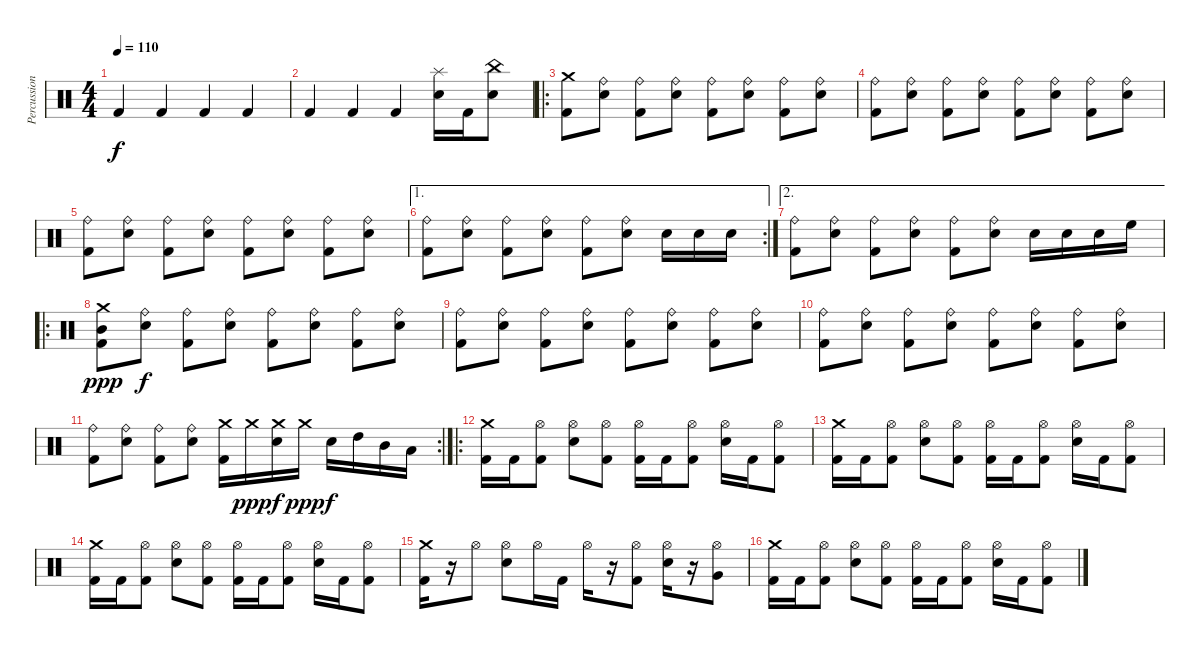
\track ("Percussion" "Percussion") {instrument percussion}
\staff {score}
\articulation defaults
\ts (4 4)
\tempo 110
\clef neutral
\ks c "Kick (hit) 2".4{dy f} "Kick (hit) 2".4 "Kick (hit) 2".4 "Kick (hit) 2".4
|
"Kick (hit) 2".4 "Kick (hit) 2".4 "Kick (hit) 2".4 ("Splash (hit)" "Electric Snare (hit)").16 "Kick (hit) 2".16 ("China (hit)" "Electric Snare (hit)").8 |
\ro
("Crash medium (hit)" "Kick (hit) 2").8 ("Ride (bell)" "Electric Snare (hit)").8 ("Ride (bell)" "Kick (hit) 2").8 ("Ride (bell)" "Electric Snare (hit)").8 ("Ride (bell)" "Kick (hit) 2").8 ("Ride (bell)" "Electric Snare (hit)").8 ("Ride (bell)" "Kick (hit) 2").8 ("Ride (bell)" "Electric Snare (hit)").8 |
("Ride (bell)" "Kick (hit) 2").8 ("Ride (bell)" "Electric Snare (hit)").8 ("Ride (bell)" "Kick (hit) 2").8 ("Ride (bell)" "Electric Snare (hit)").8 ("Ride (bell)" "Kick (hit) 2").8 ("Ride (bell)" "Electric Snare (hit)").8 ("Ride (bell)" "Kick (hit) 2").8 ("Ride (bell)" "Electric Snare (hit)").8 |
("Ride (bell)" "Kick (hit) 2").8 ("Ride (bell)" "Electric Snare (hit)").8 ("Ride (bell)" "Kick (hit) 2").8 ("Ride (bell)" "Electric Snare (hit)").8 ("Ride (bell)" "Kick (hit) 2").8 ("Ride (bell)" "Electric Snare (hit)").8 ("Ride (bell)" "Kick (hit) 2").8 ("Ride (bell)" "Electric Snare (hit)").8 |
\ae 1
\rc 2
("Ride (bell)" "Kick (hit) 2").8 ("Ride (bell)" "Electric Snare (hit)").8 ("Ride (bell)" "Kick (hit) 2").8 ("Ride (bell)" "Electric Snare (hit)").8 ("Ride (bell)" "Kick (hit) 2").8 ("Ride (bell)" "Electric Snare (hit)").8 "Electric Snare (hit)".16 "Electric Snare (hit)".16 "Electric Snare (hit)".16 |
\ae 2
("Ride (bell)" "Kick (hit) 2").8 ("Ride (bell)" "Electric Snare (hit)").8 ("Ride (bell)" "Kick (hit) 2").8 ("Ride (bell)" "Electric Snare (hit)").8 ("Ride (bell)" "Kick (hit) 2").8 ("Ride (bell)" "Electric Snare (hit)").8 "Electric Snare (hit)".16 "Electric Snare (hit)".16 "Electric Snare (hit)".16 "High Floor Tom (hit)".16 |
\ro
("Mid Tom (hit)" "Crash medium (hit)" "Kick (hit) 2").8{dy ppp} ("Ride (bell)" "Electric Snare (hit)").8{dy f} ("Ride (bell)" "Kick (hit) 2").8 ("Ride (bell)" "Electric Snare (hit)").8 ("Ride (bell)" "Kick (hit) 2").8 ("Ride (bell)" "Electric Snare (hit)").8 ("Ride (bell)" "Kick (hit) 2").8 ("Ride (bell)" "Electric Snare (hit)").8 |
("Ride (bell)" "Kick (hit) 2").8 ("Ride (bell)" "Electric Snare (hit)").8 ("Ride (bell)" "Kick (hit) 2").8 ("Ride (bell)" "Electric Snare (hit)").8 ("Ride (bell)" "Kick (hit) 2").8 ("Ride (bell)" "Electric Snare (hit)").8 ("Ride (bell)" "Kick (hit) 2").8 ("Ride (bell)" "Electric Snare (hit)").8 |
("Ride (bell)" "Kick (hit) 2").8 ("Ride (bell)" "Electric Snare (hit)").8 ("Ride (bell)" "Kick (hit) 2").8 ("Ride (bell)" "Electric Snare (hit)").8 ("Ride (bell)" "Kick (hit) 2").8 ("Ride (bell)" "Electric Snare (hit)").8 ("Ride (bell)" "Kick (hit) 2").8 ("Ride (bell)" "Electric Snare (hit)").8 |
\rc 2
("Ride (bell)" "Kick (hit) 2").8 ("Ride (bell)" "Electric Snare (hit)").8 ("Ride (bell)" "Kick (hit) 2").8 ("Ride (bell)" "Electric Snare (hit)").8 ("Crash medium (hit)" "Kick (hit) 2").16 "Crash medium (hit)".16{dy ppp} ("Crash medium (hit)" "Electric Snare (hit)").16{dy f} "Crash medium (hit)".16{dy ppp} "Electric Snare (hit)".16{dy f} "High Tom (hit)".16 "Mid Tom (hit)".16 "Low Tom (hit)".16 |
\ro
("Crash medium (hit)" "Kick (hit) 2").16 "Kick (hit) 2".16 ("Hi-Hat (open)" "Kick (hit) 2").8 ("Hi-Hat (open)" "Electric Snare (hit)").8 ("Hi-Hat (open)" "Kick (hit) 2").8 ("Hi-Hat (open)" "Kick (hit) 2").16 "Kick (hit) 2".16 ("Hi-Hat (open)" "Kick (hit) 2").8 ("Hi-Hat (open)" "Electric Snare (hit)").16 "Kick (hit) 2".16 ("Hi-Hat (open)" "Kick (hit) 2").8 |
("Crash medium (hit)" "Kick (hit) 2").16 "Kick (hit) 2".16 ("Hi-Hat (open)" "Kick (hit) 2").8 ("Hi-Hat (open)" "Electric Snare (hit)").8 ("Hi-Hat (open)" "Kick (hit) 2").8 ("Hi-Hat (open)" "Kick (hit) 2").16 "Kick (hit) 2".16 ("Hi-Hat (open)" "Kick (hit) 2").8 ("Hi-Hat (open)" "Electric Snare (hit)").16 "Kick (hit) 2".16 ("Hi-Hat (open)" "Kick (hit) 2").8 |
("Crash medium (hit)" "Kick (hit) 2").16 "Kick (hit) 2".16 ("Hi-Hat (open)" "Kick (hit) 2").8 ("Hi-Hat (open)" "Electric Snare (hit)").8 ("Hi-Hat (open)" "Kick (hit) 2").8 ("Hi-Hat (open)" "Kick (hit) 2").16 "Kick (hit) 2".16 ("Hi-Hat (open)" "Kick (hit) 2").8 ("Hi-Hat (open)" "Electric Snare (hit)").16 "Kick (hit) 2".16 ("Hi-Hat (open)" "Kick (hit) 2").8 |
("Crash medium (hit)" "Kick (hit) 2").16 r.16 "Hi-Hat (open)".8 ("Hi-Hat (open)" "Electric Snare (hit)").8 "Hi-Hat (open)".16 "Kick (hit) 2".16 "Hi-Hat (open)".16 r.16 ("Hi-Hat (open)" "Kick (hit) 2").8 ("Hi-Hat (open)" "Electric Snare (hit)").16 r.16 ("Hi-Hat (open)" "Very Low Tom (hit)").8 |
("Crash medium (hit)" "Kick (hit) 2").16 "Kick (hit) 2".16 ("Hi-Hat (open)" "Kick (hit) 2").8 ("Hi-Hat (open)" "Electric Snare (hit)").8 ("Hi-Hat (open)" "Kick (hit) 2").8 ("Hi-Hat (open)" "Kick (hit) 2").16 "Kick (hit) 2".16 ("Hi-Hat (open)" "Kick (hit) 2").8 ("Hi-Hat (open)" "Electric Snare (hit)").16 "Kick (hit) 2".16 ("Hi-Hat (open)" "Kick (hit) 2").8
